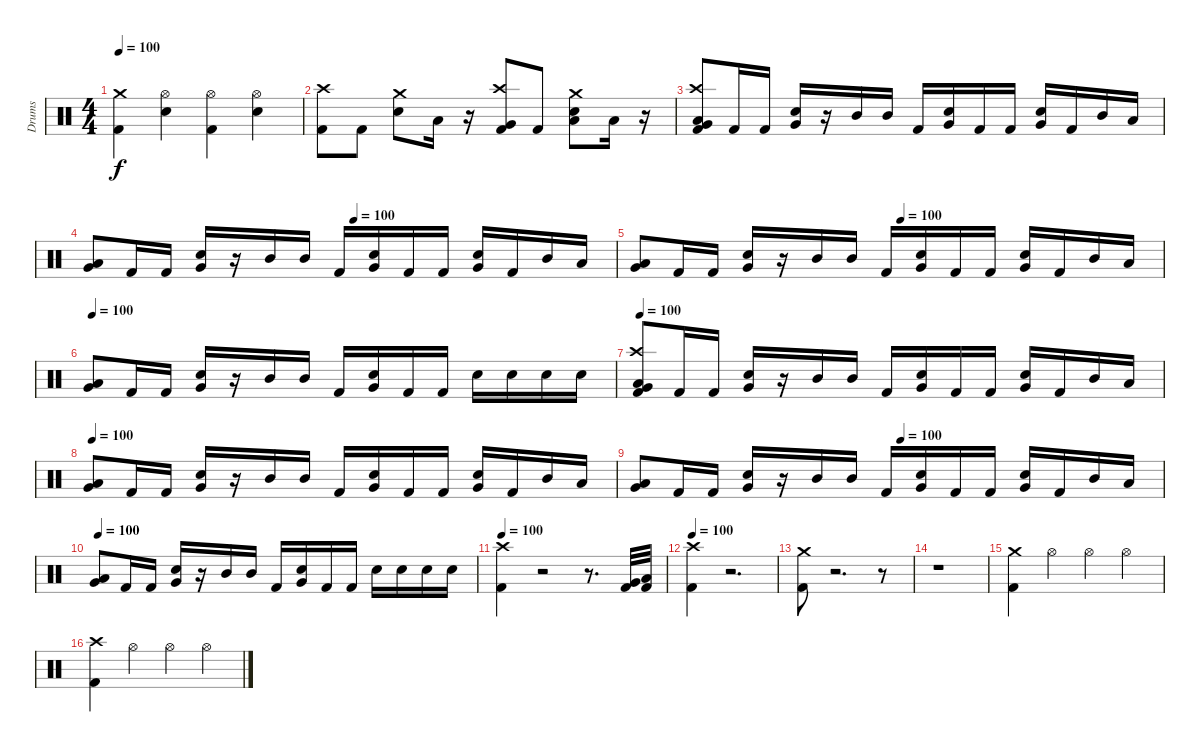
\track ("Drums" "Drums") {instrument percussion}
\staff {score}
\articulation defaults
\ts (4 4)
\tempo 100
\clef neutral
\ks c
("Kick (hit) 2" "Crash medium (hit)").4{dy f} ("Electric Snare (hit)" "Hi-Hat (open)").4 ("Kick (hit) 2" "Hi-Hat (open)").4 ("Electric Snare (hit)" "Hi-Hat (open)").4 |
("Kick (hit) 2" "Crash high (hit)").8 "Kick (hit) 2".8 ("Electric Snare (hit)" "Crash medium (hit)").8 "Low Tom (hit)".16 r.16 ("Very Low Tom (hit)" "Kick (hit) 2" "Crash high (hit)").8 "Kick (hit) 2".8 ("Low Floor Tom (hit)" "Electric Snare (hit)" "Crash medium (hit)").8 "Low Tom (hit)".16 r.16 |
("Kick (hit) 2" "Crash high (hit)" "Very Low Tom (hit)" "Low Tom (hit)").8 "Kick (hit) 2".16 "Kick (hit) 2".16 ("Very Low Tom (hit)" "Electric Snare (hit)").16 r.16 "Mid Tom (hit)".16 "Mid Tom (hit)".16 "Kick (hit) 2".16 ("Electric Snare (hit)" "Very Low Tom (hit)").16 "Kick (hit) 2".16 "Kick (hit) 2".16 ("Electric Snare (hit)" "Very Low Tom (hit)").16 "Kick (hit) 2".16 "Mid Tom (hit)".16 "Low Tom (hit)".16 |
\tempo (100 0.5)
("Very Low Tom (hit)" "Low Tom (hit)").8 "Kick (hit) 2".16 "Kick (hit) 2".16 ("Very Low Tom (hit)" "Electric Snare (hit)").16 r.16 "Mid Tom (hit)".16 "Mid Tom (hit)".16 "Kick (hit) 2".16 ("Electric Snare (hit)" "Very Low Tom (hit)").16 "Kick (hit) 2".16 "Kick (hit) 2".16 ("Electric Snare (hit)" "Very Low Tom (hit)").16 "Kick (hit) 2".16 "Mid Tom (hit)".16 "Low Tom (hit)".16 |
\tempo (100 0.5)
("Very Low Tom (hit)" "Low Tom (hit)").8 "Kick (hit) 2".16 "Kick (hit) 2".16 ("Very Low Tom (hit)" "Electric Snare (hit)").16 r.16 "Mid Tom (hit)".16 "Mid Tom (hit)".16 "Kick (hit) 2".16 ("Electric Snare (hit)" "Very Low Tom (hit)").16 "Kick (hit) 2".16 "Kick (hit) 2".16 ("Electric Snare (hit)" "Very Low Tom (hit)").16 "Kick (hit) 2".16 "Mid Tom (hit)".16 "Low Tom (hit)".16 |
\tempo 100
("Very Low Tom (hit)" "Low Tom (hit)").8 "Kick (hit) 2".16 "Kick (hit) 2".16 ("Very Low Tom (hit)" "Electric Snare (hit)").16 r.16 "Mid Tom (hit)".16 "Mid Tom (hit)".16 "Kick (hit) 2".16 ("Electric Snare (hit)" "Very Low Tom (hit)").16 "Kick (hit) 2".16 "Kick (hit) 2".16 "Electric Snare (hit)".16 "Electric Snare (hit)".16 "Electric Snare (hit)".16 "Electric Snare (hit)".16 |
\tempo 100
("Kick (hit) 2" "Crash high (hit)" "Very Low Tom (hit)" "Low Tom (hit)").8 "Kick (hit) 2".16 "Kick (hit) 2".16 ("Very Low Tom (hit)" "Electric Snare (hit)").16 r.16 "Mid Tom (hit)".16 "Mid Tom (hit)".16 "Kick (hit) 2".16 ("Electric Snare (hit)" "Very Low Tom (hit)").16 "Kick (hit) 2".16 "Kick (hit) 2".16 ("Electric Snare (hit)" "Very Low Tom (hit)").16 "Kick (hit) 2".16 "Mid Tom (hit)".16 "Low Tom (hit)".16 |
\tempo 100
("Very Low Tom (hit)" "Low Tom (hit)").8 "Kick (hit) 2".16 "Kick (hit) 2".16 ("Very Low Tom (hit)" "Electric Snare (hit)").16 r.16 "Mid Tom (hit)".16 "Mid Tom (hit)".16 "Kick (hit) 2".16 ("Electric Snare (hit)" "Very Low Tom (hit)").16 "Kick (hit) 2".16 "Kick (hit) 2".16 ("Electric Snare (hit)" "Very Low Tom (hit)").16 "Kick (hit) 2".16 "Mid Tom (hit)".16 "Low Tom (hit)".16 |
\tempo (100 0.5)
("Very Low Tom (hit)" "Low Tom (hit)").8 "Kick (hit) 2".16 "Kick (hit) 2".16 ("Very Low Tom (hit)" "Electric Snare (hit)").16 r.16 "Mid Tom (hit)".16 "Mid Tom (hit)".16 "Kick (hit) 2".16 ("Electric Snare (hit)" "Very Low Tom (hit)").16 "Kick (hit) 2".16 "Kick (hit) 2".16 ("Electric Snare (hit)" "Very Low Tom (hit)").16 "Kick (hit) 2".16 "Mid Tom (hit)".16 "Low Tom (hit)".16 |
\tempo 100
("Very Low Tom (hit)" "Low Tom (hit)").8 "Kick (hit) 2".16 "Kick (hit) 2".16 ("Very Low Tom (hit)" "Electric Snare (hit)").16 r.16 "Mid Tom (hit)".16 "Mid Tom (hit)".16 "Kick (hit) 2".16 ("Electric Snare (hit)" "Very Low Tom (hit)").16 "Kick (hit) 2".16 "Kick (hit) 2".16 "Electric Snare (hit)".16 "Electric Snare (hit)".16 "Electric Snare (hit)".16 "Electric Snare (hit)".16 |
\tempo 100
("Kick (hit) 2" "Crash high (hit)").4 r.2 r.8{d} ("Very Low Tom (hit)" "Kick (hit) 2").32 ("Low Floor Tom (hit)" "Kick (hit) 2").32 |
\tempo 100
("Crash high (hit)" "Kick (hit) 2").4 r.2{d} |
("Crash medium (hit)" "Kick (hit) 2").8 r.2{d} r.8 |
r.1 |
("Crash medium (hit)" "Kick (hit) 2").4 "Hi-Hat (open)".4 "Hi-Hat (open)".4 "Hi-Hat (open)".4 |
("Crash high (hit)" "Kick (hit) 2").4 "Hi-Hat (open)".4 "Hi-Hat (open)".4 "Hi-Hat (open)".4
